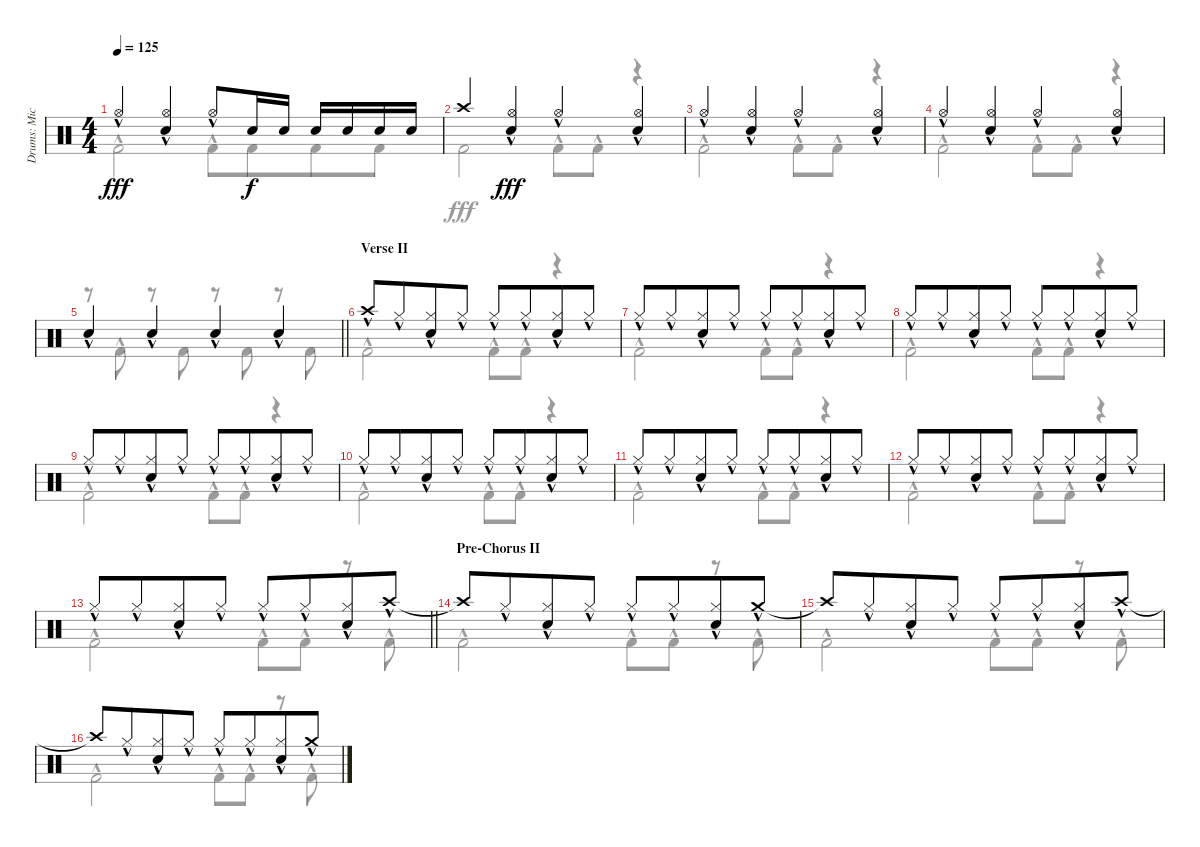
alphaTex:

\track ("Drums: Mick" "Drums: Mic") {instrument percussion}
\staff {score}
\articulation defaults
\voice
\ts (4 4)
\tempo 125
\clef neutral
\ks c "Hi-Hat (open)"{hac}.4{dy fff}
("Hi-Hat (open)"{hac} "Snare (hit) 2"{hac}).4 "Hi-Hat (open)"{hac}.8 "Snare (hit) 2".16{dy f} "Snare (hit) 2".16 "Snare (hit) 2".16 "Snare (hit) 2".16 "Snare (hit) 2".16 "Snare (hit) 2".16 |
"Crash high (hit)".4 ("Hi-Hat (open)"{hac} "Snare (hit) 2"{hac}).4{dy fff} "Hi-Hat (open)"{hac}.4 ("Hi-Hat (open)"{hac} "Snare (hit) 2"{hac}).4 |
"Hi-Hat (open)"{hac}.4 ("Hi-Hat (open)"{hac} "Snare (hit) 2"{hac}).4 "Hi-Hat (open)"{hac}.4 ("Hi-Hat (open)"{hac} "Snare (hit) 2"{hac}).4 |
"Hi-Hat (open)"{hac}.4 ("Hi-Hat (open)"{hac} "Snare (hit) 2"{hac}).4 "Hi-Hat (open)"{hac}.4 ("Hi-Hat (open)"{hac} "Snare (hit) 2"{hac}).4 |
\barLineRight lightlight "Snare (hit) 2"{hac}.4 "Snare (hit) 2"{hac}.4 "Snare (hit) 2"{hac}.4 "Snare (hit) 2"{hac}.4
|
\section ("" "Verse II")
"Crash high (hit)"{hac}.8 "Hi-Hat (closed)"{hac}.8{beam merge} ("Hi-Hat (closed)"{hac} "Snare (hit) 2"{hac}).8 "Hi-Hat (closed)"{hac}.8 "Hi-Hat (closed)"{hac}.8 "Hi-Hat (closed)"{hac}.8{beam merge} ("Hi-Hat (closed)"{hac} "Snare (hit) 2"{hac}).8 "Hi-Hat (closed)"{hac}.8 |
"Hi-Hat (closed)"{hac}.8 "Hi-Hat (closed)"{hac}.8{beam merge} ("Hi-Hat (closed)"{hac} "Snare (hit) 2"{hac}).8 "Hi-Hat (closed)"{hac}.8 "Hi-Hat (closed)"{hac}.8 "Hi-Hat (closed)"{hac}.8{beam merge} ("Hi-Hat (closed)"{hac} "Snare (hit) 2"{hac}).8 "Hi-Hat (closed)"{hac}.8 |
"Hi-Hat (closed)"{hac}.8 "Hi-Hat (closed)"{hac}.8{beam merge} ("Hi-Hat (closed)"{hac} "Snare (hit) 2"{hac}).8 "Hi-Hat (closed)"{hac}.8 "Hi-Hat (closed)"{hac}.8 "Hi-Hat (closed)"{hac}.8{beam merge} ("Hi-Hat (closed)"{hac} "Snare (hit) 2"{hac}).8 "Hi-Hat (closed)"{hac}.8 |
"Hi-Hat (closed)"{hac}.8 "Hi-Hat (closed)"{hac}.8{beam merge} ("Hi-Hat (closed)"{hac} "Snare (hit) 2"{hac}).8 "Hi-Hat (closed)"{hac}.8 "Hi-Hat (closed)"{hac}.8 "Hi-Hat (closed)"{hac}.8{beam merge} ("Hi-Hat (closed)"{hac} "Snare (hit) 2"{hac}).8 "Hi-Hat (closed)"{hac}.8 |
"Hi-Hat (closed)"{hac}.8 "Hi-Hat (closed)"{hac}.8{beam merge} ("Hi-Hat (closed)"{hac} "Snare (hit) 2"{hac}).8 "Hi-Hat (closed)"{hac}.8 "Hi-Hat (closed)"{hac}.8 "Hi-Hat (closed)"{hac}.8{beam merge} ("Hi-Hat (closed)"{hac} "Snare (hit) 2"{hac}).8 "Hi-Hat (closed)"{hac}.8 |
"Hi-Hat (closed)"{hac}.8 "Hi-Hat (closed)"{hac}.8{beam merge} ("Hi-Hat (closed)"{hac} "Snare (hit) 2"{hac}).8 "Hi-Hat (closed)"{hac}.8 "Hi-Hat (closed)"{hac}.8 "Hi-Hat (closed)"{hac}.8{beam merge} ("Hi-Hat (closed)"{hac} "Snare (hit) 2"{hac}).8 "Hi-Hat (closed)"{hac}.8 |
"Hi-Hat (closed)"{hac}.8 "Hi-Hat (closed)"{hac}.8{beam merge} ("Hi-Hat (closed)"{hac} "Snare (hit) 2"{hac}).8 "Hi-Hat (closed)"{hac}.8 "Hi-Hat (closed)"{hac}.8 "Hi-Hat (closed)"{hac}.8{beam merge} ("Hi-Hat (closed)"{hac} "Snare (hit) 2"{hac}).8 "Hi-Hat (closed)"{hac}.8 |
\barLineRight lightlight "Hi-Hat (closed)"{hac}.8 "Hi-Hat (closed)"{hac}.8{beam merge}
("Hi-Hat (closed)"{hac} "Snare (hit) 2"{hac}).8 "Hi-Hat (closed)"{hac}.8 "Hi-Hat (closed)"{hac}.8 "Hi-Hat (closed)"{hac}.8{beam merge} ("Hi-Hat (closed)"{hac} "Snare (hit) 2"{hac}).8 "Crash high (hit)"{hac}.8 |
\section ("" "Pre-Chorus II")
"Crash high (hit)"{t}.8 "Hi-Hat (closed)"{hac}.8{beam merge} ("Hi-Hat (closed)"{hac} "Snare (hit) 2"{hac}).8 "Hi-Hat (closed)"{hac}.8 "Hi-Hat (closed)"{hac}.8 "Hi-Hat (closed)"{hac}.8{beam merge} ("Hi-Hat (closed)"{hac} "Snare (hit) 2"{hac}).8 "Crash medium (hit)"{hac}.8 |
"Crash high (hit)"{t}.8 "Hi-Hat (closed)"{hac}.8{beam merge} ("Hi-Hat (closed)"{hac} "Snare (hit) 2"{hac}).8 "Hi-Hat (closed)"{hac}.8 "Hi-Hat (closed)"{hac}.8 "Hi-Hat (closed)"{hac}.8{beam merge} ("Hi-Hat (closed)"{hac} "Snare (hit) 2"{hac}).8 "Crash high (hit)"{hac}.8 |
"Crash high (hit)"{t}.8 "Hi-Hat (closed)"{hac}.8{beam merge} ("Hi-Hat (closed)"{hac} "Snare (hit) 2"{hac}).8 "Hi-Hat (closed)"{hac}.8 "Hi-Hat (closed)"{hac}.8 "Hi-Hat (closed)"{hac}.8{beam merge} ("Hi-Hat (closed)"{hac} "Snare (hit) 2"{hac}).8 "Crash medium (hit)"{hac}.8
\voice
\clef neutral
\ottava regular
\simile none
\ks c "Kick (hit) 2"{hac}.2{dy fff} "Kick (hit) 2"{hac}.8 "Kick (hit) 2".8{dy f beam merge} "Kick (hit) 2".8 "Kick (hit) 2".8
|
"Kick (hit) 2".2{dy fff} "Kick (hit) 2"{hac}.8 "Kick (hit) 2"{hac}.8 r.4 |
"Kick (hit) 2"{hac}.2 "Kick (hit) 2"{hac}.8 "Kick (hit) 2"{hac}.8 r.4 |
"Kick (hit) 2"{hac}.2 "Kick (hit) 2"{hac}.8 "Kick (hit) 2"{hac}.8 r.4 |
\barLineRight lightlight
r.8 "Kick (hit) 2"{hac}.8 r.8 "Kick (hit) 2".8 r.8 "Kick (hit) 2".8 r.8 "Kick (hit) 2".8 |
"Kick (hit) 2"{hac}.2 "Kick (hit) 2"{hac}.8 "Kick (hit) 2"{hac}.8 r.4 |
"Kick (hit) 2"{hac}.2 "Kick (hit) 2"{hac}.8 "Kick (hit) 2"{hac}.8 r.4 |
"Kick (hit) 2"{hac}.2 "Kick (hit) 2"{hac}.8 "Kick (hit) 2"{hac}.8 r.4 |
"Kick (hit) 2"{hac}.2 "Kick (hit) 2"{hac}.8 "Kick (hit) 2"{hac}.8 r.4 |
"Kick (hit) 2"{hac}.2 "Kick (hit) 2"{hac}.8 "Kick (hit) 2"{hac}.8 r.4 |
"Kick (hit) 2"{hac}.2 "Kick (hit) 2"{hac}.8 "Kick (hit) 2"{hac}.8 r.4 |
"Kick (hit) 2"{hac}.2 "Kick (hit) 2"{hac}.8 "Kick (hit) 2"{hac}.8 r.4 |
\barLineRight lightlight "Kick (hit) 2"{hac}.2 "Kick (hit) 2"{hac}.8 "Kick (hit) 2"{hac}.8
r.8 "Kick (hit) 2"{hac}.8 |
"Kick (hit) 2"{hac}.2 "Kick (hit) 2"{hac}.8 "Kick (hit) 2"{hac}.8 r.8 "Kick (hit) 2"{hac}.8 |
"Kick (hit) 2"{hac}.2 "Kick (hit) 2"{hac}.8 "Kick (hit) 2"{hac}.8 r.8 "Kick (hit) 2"{hac}.8 |
"Kick (hit) 2"{hac}.2 "Kick (hit) 2"{hac}.8 "Kick (hit) 2"{hac}.8 r.8 "Kick (hit) 2"{hac}.8
